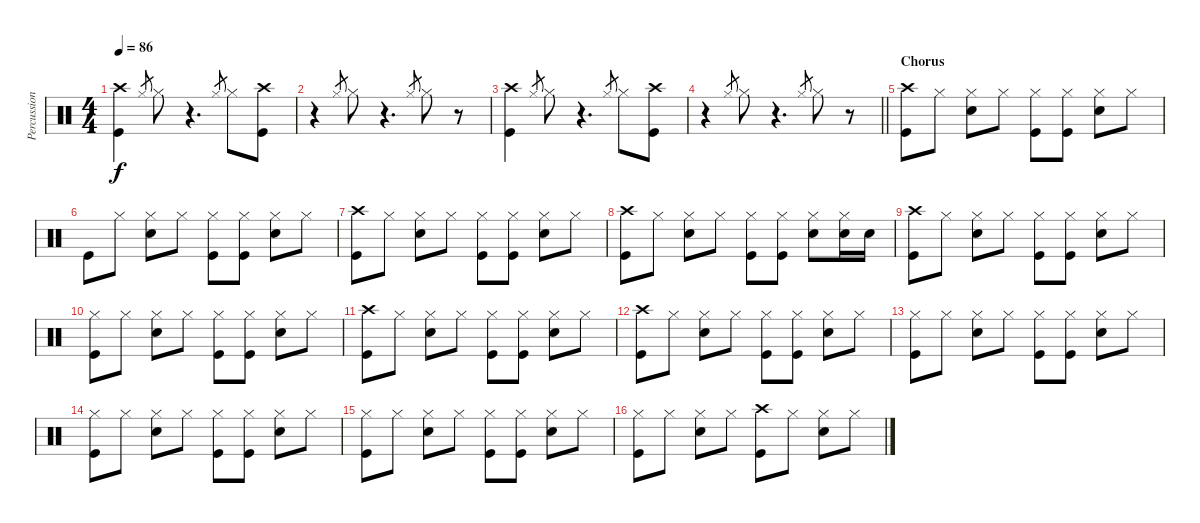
\track ("Percussion" "Percussion") {instrument percussion}
\staff {score}
\articulation defaults
\ts (4 4)
\tempo 86
\clef neutral
\ks c
("Crash high (hit)" "Kick (hit)").4{dy f} "Hi-Hat (closed)"{sl}.8{gr} "Hi-Hat (closed)".8 r.4{d} "Hi-Hat (closed)".8{gr} "Hi-Hat (closed)".8 ("Crash high (hit)" "Kick (hit)").8 |
r.4 "Hi-Hat (closed)".8{gr} "Hi-Hat (closed)".8 r.4{d} "Hi-Hat (closed)".8{gr} "Hi-Hat (closed)".8 r.8 |
("Crash high (hit)" "Kick (hit)").4 "Hi-Hat (closed)"{sl}.8{gr} "Hi-Hat (closed)".8 r.4{d} "Hi-Hat (closed)".8{gr} "Hi-Hat (closed)".8 ("Crash high (hit)" "Kick (hit)").8 |
\barLineRight lightlight
r.4 "Hi-Hat (closed)".8{gr} "Hi-Hat (closed)".8 r.4{d} "Hi-Hat (closed)".8{gr} "Hi-Hat (closed)".8 r.8 |
\section ("" "Chorus")
("Crash high (hit)" "Kick (hit)").8 "Hi-Hat (closed)".8 ("Hi-Hat (closed)" "Electric Snare (hit)").8 "Hi-Hat (closed)".8 ("Hi-Hat (closed)" "Kick (hit)").8 ("Hi-Hat (closed)" "Kick (hit)").8 ("Hi-Hat (closed)" "Electric Snare (hit)").8 "Hi-Hat (closed)".8 |
"Kick (hit)".8 "Hi-Hat (closed)".8 ("Hi-Hat (closed)" "Electric Snare (hit)").8 "Hi-Hat (closed)".8 ("Hi-Hat (closed)" "Kick (hit)").8 ("Hi-Hat (closed)" "Kick (hit)").8 ("Hi-Hat (closed)" "Electric Snare (hit)").8 "Hi-Hat (closed)".8 |
("Crash high (hit)" "Kick (hit)").8 "Hi-Hat (closed)".8 ("Hi-Hat (closed)" "Electric Snare (hit)").8 "Hi-Hat (closed)".8 ("Hi-Hat (closed)" "Kick (hit)").8 ("Hi-Hat (closed)" "Kick (hit)").8 ("Hi-Hat (closed)" "Electric Snare (hit)").8 "Hi-Hat (closed)".8 |
("Crash high (hit)" "Kick (hit)").8 "Hi-Hat (closed)".8 ("Hi-Hat (closed)" "Electric Snare (hit)").8 "Hi-Hat (closed)".8 ("Hi-Hat (closed)" "Kick (hit)").8 ("Hi-Hat (closed)" "Kick (hit)").8 ("Hi-Hat (closed)" "Electric Snare (hit)").8 ("Hi-Hat (closed)" "Electric Snare (hit)").16 "Electric Snare (hit)".16 |
("Crash high (hit)" "Kick (hit)").8 "Hi-Hat (closed)".8 ("Hi-Hat (closed)" "Electric Snare (hit)").8 "Hi-Hat (closed)".8 ("Hi-Hat (closed)" "Kick (hit)").8 ("Hi-Hat (closed)" "Kick (hit)").8 ("Hi-Hat (closed)" "Electric Snare (hit)").8 "Hi-Hat (closed)".8 |
("Hi-Hat (closed)" "Kick (hit)").8 "Hi-Hat (closed)".8 ("Hi-Hat (closed)" "Electric Snare (hit)").8 "Hi-Hat (closed)".8 ("Hi-Hat (closed)" "Kick (hit)").8 ("Hi-Hat (closed)" "Kick (hit)").8 ("Hi-Hat (closed)" "Electric Snare (hit)").8 "Hi-Hat (closed)".8 |
("Crash high (hit)" "Kick (hit)").8 "Hi-Hat (closed)".8 ("Hi-Hat (closed)" "Electric Snare (hit)").8 "Hi-Hat (closed)".8 ("Hi-Hat (closed)" "Kick (hit)").8 ("Hi-Hat (closed)" "Kick (hit)").8 ("Hi-Hat (closed)" "Electric Snare (hit)").8 "Hi-Hat (closed)".8 |
("Crash high (hit)" "Kick (hit)").8 "Hi-Hat (closed)".8 ("Hi-Hat (closed)" "Electric Snare (hit)").8 "Hi-Hat (closed)".8 ("Hi-Hat (closed)" "Kick (hit)").8 ("Hi-Hat (closed)" "Kick (hit)").8 ("Hi-Hat (closed)" "Electric Snare (hit)").8 "Hi-Hat (closed)".8 |
("Hi-Hat (closed)" "Kick (hit)").8 "Hi-Hat (closed)".8 ("Hi-Hat (closed)" "Electric Snare (hit)").8 "Hi-Hat (closed)".8 ("Hi-Hat (closed)" "Kick (hit)").8 ("Hi-Hat (closed)" "Kick (hit)").8 ("Hi-Hat (closed)" "Electric Snare (hit)").8 "Hi-Hat (closed)".8 |
("Hi-Hat (closed)" "Kick (hit)").8 "Hi-Hat (closed)".8 ("Hi-Hat (closed)" "Electric Snare (hit)").8 "Hi-Hat (closed)".8 ("Hi-Hat (closed)" "Kick (hit)").8 ("Hi-Hat (closed)" "Kick (hit)").8 ("Hi-Hat (closed)" "Electric Snare (hit)").8 "Hi-Hat (closed)".8 |
("Hi-Hat (closed)" "Kick (hit)").8 "Hi-Hat (closed)".8 ("Hi-Hat (closed)" "Electric Snare (hit)").8 "Hi-Hat (closed)".8 ("Hi-Hat (closed)" "Kick (hit)").8 ("Hi-Hat (closed)" "Kick (hit)").8 ("Hi-Hat (closed)" "Electric Snare (hit)").8 "Hi-Hat (closed)".8 |
("Hi-Hat (closed)" "Kick (hit)").8 "Hi-Hat (closed)".8 ("Hi-Hat (closed)" "Electric Snare (hit)").8 "Hi-Hat (closed)".8 ("Crash high (hit)" "Kick (hit)").8 "Hi-Hat (closed)".8 ("Hi-Hat (closed)" "Electric Snare (hit)").8 "Hi-Hat (closed)".8
